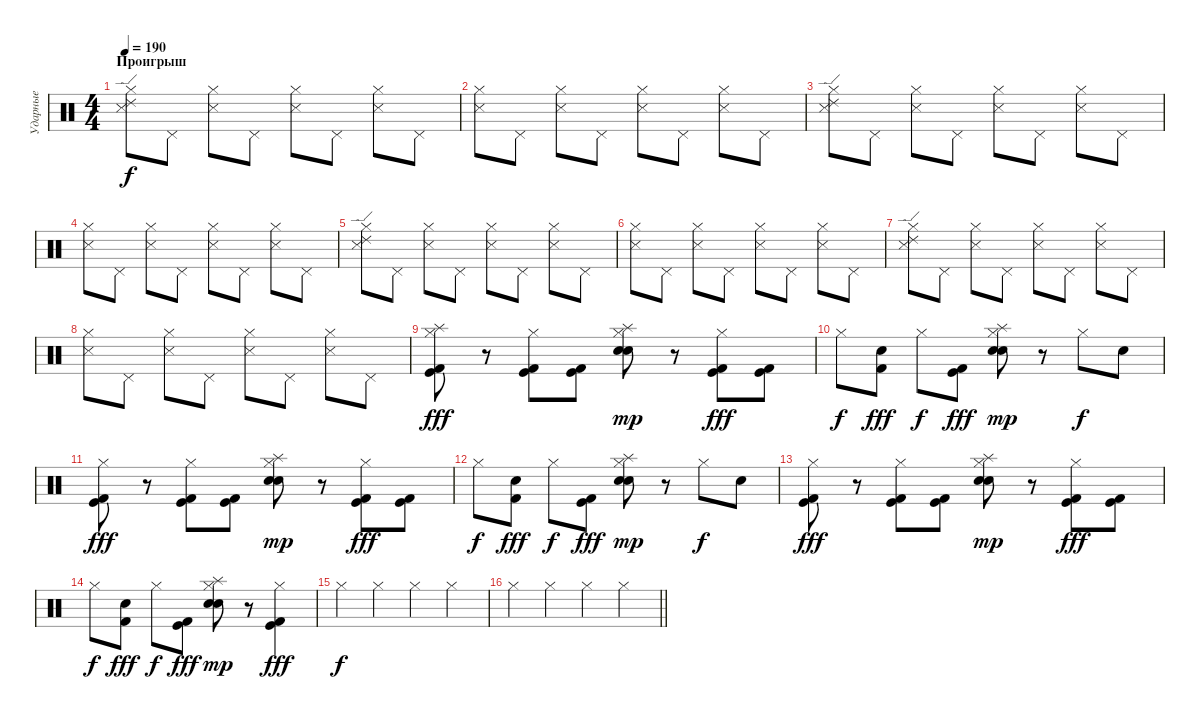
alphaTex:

\track ("Ударные" "Ударные") {instrument percussion}
\staff {score}
\articulation defaults
\ts (4 4)
\section ("" "Проигрыш")
\tempo 190
\clef neutral
\ks c
("Hi-Hat (closed)" "Snare (side stick) 3" "Ride (edge) 2").8{dy f} "Pedal Hi-Hat (hit)".8 ("Hi-Hat (closed)" "Snare (side stick) 3").8 "Pedal Hi-Hat (hit)".8 ("Hi-Hat (closed)" "Snare (side stick) 3").8 "Pedal Hi-Hat (hit)".8 ("Hi-Hat (closed)" "Snare (side stick) 3").8 "Pedal Hi-Hat (hit)".8 |
("Hi-Hat (closed)" "Snare (side stick) 3").8 "Pedal Hi-Hat (hit)".8 ("Hi-Hat (closed)" "Snare (side stick) 3").8 "Pedal Hi-Hat (hit)".8 ("Hi-Hat (closed)" "Snare (side stick) 3").8 "Pedal Hi-Hat (hit)".8 ("Hi-Hat (closed)" "Snare (side stick) 3").8 "Pedal Hi-Hat (hit)".8 |
("Hi-Hat (closed)" "Snare (side stick) 3" "Ride (edge) 2").8 "Pedal Hi-Hat (hit)".8 ("Hi-Hat (closed)" "Snare (side stick) 3").8 "Pedal Hi-Hat (hit)".8 ("Hi-Hat (closed)" "Snare (side stick) 3").8 "Pedal Hi-Hat (hit)".8 ("Hi-Hat (closed)" "Snare (side stick) 3").8 "Pedal Hi-Hat (hit)".8 |
("Hi-Hat (closed)" "Snare (side stick) 3").8 "Pedal Hi-Hat (hit)".8 ("Hi-Hat (closed)" "Snare (side stick) 3").8 "Pedal Hi-Hat (hit)".8 ("Hi-Hat (closed)" "Snare (side stick) 3").8 "Pedal Hi-Hat (hit)".8 ("Hi-Hat (closed)" "Snare (side stick) 3").8 "Pedal Hi-Hat (hit)".8 |
("Hi-Hat (closed)" "Snare (side stick) 3" "Ride (edge) 2").8 "Pedal Hi-Hat (hit)".8 ("Hi-Hat (closed)" "Snare (side stick) 3").8 "Pedal Hi-Hat (hit)".8 ("Hi-Hat (closed)" "Snare (side stick) 3").8 "Pedal Hi-Hat (hit)".8 ("Hi-Hat (closed)" "Snare (side stick) 3").8 "Pedal Hi-Hat (hit)".8 |
("Hi-Hat (closed)" "Snare (side stick) 3").8 "Pedal Hi-Hat (hit)".8 ("Hi-Hat (closed)" "Snare (side stick) 3").8 "Pedal Hi-Hat (hit)".8 ("Hi-Hat (closed)" "Snare (side stick) 3").8 "Pedal Hi-Hat (hit)".8 ("Hi-Hat (closed)" "Snare (side stick) 3").8 "Pedal Hi-Hat (hit)".8 |
("Hi-Hat (closed)" "Snare (side stick) 3" "Ride (edge) 2").8 "Pedal Hi-Hat (hit)".8 ("Hi-Hat (closed)" "Snare (side stick) 3").8 "Pedal Hi-Hat (hit)".8 ("Hi-Hat (closed)" "Snare (side stick) 3").8 "Pedal Hi-Hat (hit)".8 ("Hi-Hat (closed)" "Snare (side stick) 3").8 "Pedal Hi-Hat (hit)".8 |
("Hi-Hat (closed)" "Snare (side stick) 3").8 "Pedal Hi-Hat (hit)".8 ("Hi-Hat (closed)" "Snare (side stick) 3").8 "Pedal Hi-Hat (hit)".8 ("Hi-Hat (closed)" "Snare (side stick) 3").8 "Pedal Hi-Hat (hit)".8 ("Hi-Hat (closed)" "Snare (side stick) 3").8 "Pedal Hi-Hat (hit)".8 |
("Hi-Hat (closed)" "Splash (hit)" "Kick (hit)" "Kick (hit) 2").8{dy fff} r.8 ("Hi-Hat (closed)" "Kick (hit)" "Kick (hit) 2").8 ("Kick (hit)" "Kick (hit) 2").8 ("Hi-Hat (closed)" "Splash (hit)" "Electric Snare (hit)" "Snare (hit) 2").8{dy mp} r.8 ("Hi-Hat (closed)" "Kick (hit)" "Kick (hit) 2").8{dy fff} ("Kick (hit)" "Kick (hit) 2").8 |
"Hi-Hat (closed)".8{dy f} ("Electric Snare (hit)" "Kick (hit) 2").8{dy fff} "Hi-Hat (closed)".8{dy f} ("Kick (hit)" "Kick (hit) 2").8{dy fff} ("Hi-Hat (closed)" "Splash (hit)" "Electric Snare (hit)" "Snare (hit) 2").8{dy mp} r.8 "Hi-Hat (closed)".8{dy f} "Electric Snare (hit)".8 |
("Hi-Hat (closed)" "Kick (hit)" "Kick (hit) 2").8{dy fff} r.8 ("Hi-Hat (closed)" "Kick (hit)" "Kick (hit) 2").8 ("Kick (hit)" "Kick (hit) 2").8 ("Hi-Hat (closed)" "Splash (hit)" "Electric Snare (hit)" "Snare (hit) 2").8{dy mp} r.8 ("Hi-Hat (closed)" "Kick (hit)" "Kick (hit) 2").8{dy fff} ("Kick (hit)" "Kick (hit) 2").8 |
"Hi-Hat (closed)".8{dy f} ("Electric Snare (hit)" "Kick (hit) 2").8{dy fff} "Hi-Hat (closed)".8{dy f} ("Kick (hit)" "Kick (hit) 2").8{dy fff} ("Hi-Hat (closed)" "Splash (hit)" "Electric Snare (hit)" "Snare (hit) 2").8{dy mp} r.8 "Hi-Hat (closed)".8{dy f} "Electric Snare (hit)".8 |
("Hi-Hat (closed)" "Kick (hit)" "Kick (hit) 2").8{dy fff} r.8 ("Hi-Hat (closed)" "Kick (hit)" "Kick (hit) 2").8 ("Kick (hit)" "Kick (hit) 2").8 ("Hi-Hat (closed)" "Splash (hit)" "Electric Snare (hit)" "Snare (hit) 2").8{dy mp} r.8 ("Hi-Hat (closed)" "Kick (hit)" "Kick (hit) 2").8{dy fff} ("Kick (hit)" "Kick (hit) 2").8 |
"Hi-Hat (closed)".8{dy f} ("Electric Snare (hit)" "Kick (hit) 2").8{dy fff} "Hi-Hat (closed)".8{dy f} ("Kick (hit)" "Kick (hit) 2").8{dy fff} ("Hi-Hat (closed)" "Splash (hit)" "Electric Snare (hit)" "Snare (hit) 2").8{dy mp} r.8 ("Hi-Hat (closed)" "Kick (hit)" "Kick (hit) 2").4{dy fff} |
"Hi-Hat (closed)".4{dy f} "Hi-Hat (closed)".4 "Hi-Hat (closed)".4 "Hi-Hat (closed)".4 |
\barLineRight lightlight "Hi-Hat (closed)".4 "Hi-Hat (closed)".4 "Hi-Hat (closed)".4 "Hi-Hat (closed)".4
